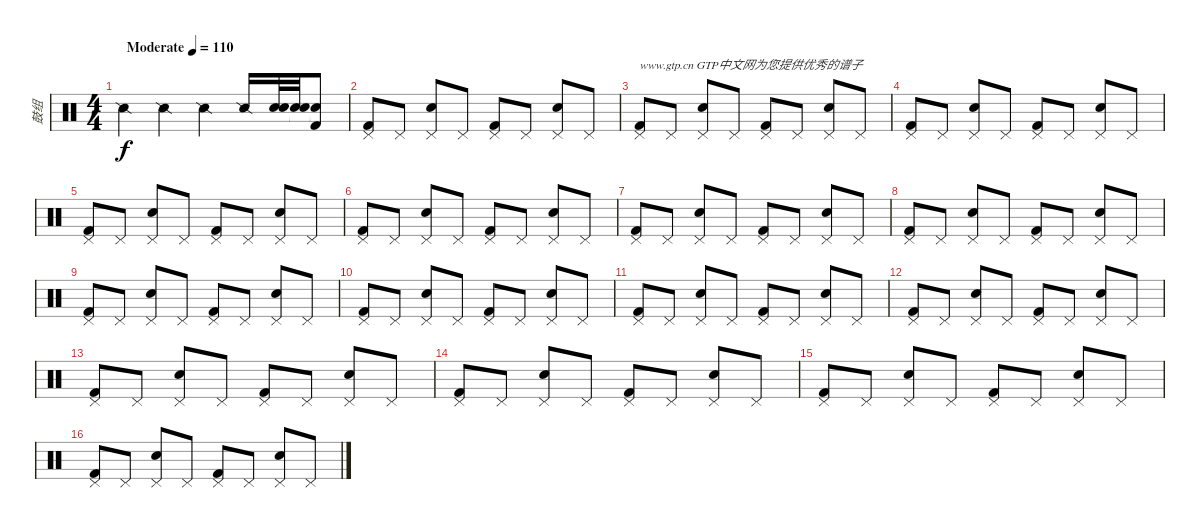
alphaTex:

\track ("鼓组" "鼓组") {instrument percussion}
\staff {score}
\articulation defaults
\ts (4 4)
\tempo (110 "Moderate")
\clef neutral
\ks c "Snare (side stick) 2".4{dy f} "Snare (side stick) 2".4 "Snare (side stick) 2".4 "Snare (side stick) 2".16
("Snare (hit) 2" "Snare (hit)").32 ("Electric Snare (hit)" "Snare (hit)"{t}).32 ("Kick (hit) 2" "Snare (hit)"{t}).8 |
("Kick (hit) 2" "Pedal Hi-Hat (hit)").8 "Pedal Hi-Hat (hit)".8 ("Electric Snare (hit)" "Pedal Hi-Hat (hit)").8 "Pedal Hi-Hat (hit)".8 ("Kick (hit) 2" "Pedal Hi-Hat (hit)").8 "Pedal Hi-Hat (hit)".8 ("Electric Snare (hit)" "Pedal Hi-Hat (hit)").8 "Pedal Hi-Hat (hit)".8 |
("Kick (hit) 2" "Pedal Hi-Hat (hit)").8{txt "www.gtp.cn GTP中文网为您提供优秀的谱子"} "Pedal Hi-Hat (hit)".8 ("Electric Snare (hit)" "Pedal Hi-Hat (hit)").8 "Pedal Hi-Hat (hit)".8 ("Kick (hit) 2" "Pedal Hi-Hat (hit)").8 "Pedal Hi-Hat (hit)".8 ("Electric Snare (hit)" "Pedal Hi-Hat (hit)").8 "Pedal Hi-Hat (hit)".8 |
("Kick (hit) 2" "Pedal Hi-Hat (hit)").8 "Pedal Hi-Hat (hit)".8 ("Electric Snare (hit)" "Pedal Hi-Hat (hit)").8 "Pedal Hi-Hat (hit)".8 ("Kick (hit) 2" "Pedal Hi-Hat (hit)").8 "Pedal Hi-Hat (hit)".8 ("Electric Snare (hit)" "Pedal Hi-Hat (hit)").8 "Pedal Hi-Hat (hit)".8 |
("Kick (hit) 2" "Pedal Hi-Hat (hit)").8 "Pedal Hi-Hat (hit)".8 ("Electric Snare (hit)" "Pedal Hi-Hat (hit)").8 "Pedal Hi-Hat (hit)".8 ("Kick (hit) 2" "Pedal Hi-Hat (hit)").8 "Pedal Hi-Hat (hit)".8 ("Electric Snare (hit)" "Pedal Hi-Hat (hit)").8 "Pedal Hi-Hat (hit)".8 |
("Kick (hit) 2" "Pedal Hi-Hat (hit)").8 "Pedal Hi-Hat (hit)".8 ("Electric Snare (hit)" "Pedal Hi-Hat (hit)").8 "Pedal Hi-Hat (hit)".8 ("Kick (hit) 2" "Pedal Hi-Hat (hit)").8 "Pedal Hi-Hat (hit)".8 ("Electric Snare (hit)" "Pedal Hi-Hat (hit)").8 "Pedal Hi-Hat (hit)".8 |
("Kick (hit) 2" "Pedal Hi-Hat (hit)").8 "Pedal Hi-Hat (hit)".8 ("Electric Snare (hit)" "Pedal Hi-Hat (hit)").8 "Pedal Hi-Hat (hit)".8 ("Kick (hit) 2" "Pedal Hi-Hat (hit)").8 "Pedal Hi-Hat (hit)".8 ("Electric Snare (hit)" "Pedal Hi-Hat (hit)").8 "Pedal Hi-Hat (hit)".8 |
("Kick (hit) 2" "Pedal Hi-Hat (hit)").8 "Pedal Hi-Hat (hit)".8 ("Electric Snare (hit)" "Pedal Hi-Hat (hit)").8 "Pedal Hi-Hat (hit)".8 ("Kick (hit) 2" "Pedal Hi-Hat (hit)").8 "Pedal Hi-Hat (hit)".8 ("Electric Snare (hit)" "Pedal Hi-Hat (hit)").8 "Pedal Hi-Hat (hit)".8 |
("Kick (hit) 2" "Pedal Hi-Hat (hit)").8 "Pedal Hi-Hat (hit)".8 ("Electric Snare (hit)" "Pedal Hi-Hat (hit)").8 "Pedal Hi-Hat (hit)".8 ("Kick (hit) 2" "Pedal Hi-Hat (hit)").8 "Pedal Hi-Hat (hit)".8 ("Electric Snare (hit)" "Pedal Hi-Hat (hit)").8 "Pedal Hi-Hat (hit)".8 |
("Kick (hit) 2" "Pedal Hi-Hat (hit)").8 "Pedal Hi-Hat (hit)".8 ("Electric Snare (hit)" "Pedal Hi-Hat (hit)").8 "Pedal Hi-Hat (hit)".8 ("Kick (hit) 2" "Pedal Hi-Hat (hit)").8 "Pedal Hi-Hat (hit)".8 ("Electric Snare (hit)" "Pedal Hi-Hat (hit)").8 "Pedal Hi-Hat (hit)".8 |
("Kick (hit) 2" "Pedal Hi-Hat (hit)").8 "Pedal Hi-Hat (hit)".8 ("Electric Snare (hit)" "Pedal Hi-Hat (hit)").8 "Pedal Hi-Hat (hit)".8 ("Kick (hit) 2" "Pedal Hi-Hat (hit)").8 "Pedal Hi-Hat (hit)".8 ("Electric Snare (hit)" "Pedal Hi-Hat (hit)").8 "Pedal Hi-Hat (hit)".8 |
("Kick (hit) 2" "Pedal Hi-Hat (hit)").8 "Pedal Hi-Hat (hit)".8 ("Electric Snare (hit)" "Pedal Hi-Hat (hit)").8 "Pedal Hi-Hat (hit)".8 ("Kick (hit) 2" "Pedal Hi-Hat (hit)").8 "Pedal Hi-Hat (hit)".8 ("Electric Snare (hit)" "Pedal Hi-Hat (hit)").8 "Pedal Hi-Hat (hit)".8 |
("Kick (hit) 2" "Pedal Hi-Hat (hit)").8 "Pedal Hi-Hat (hit)".8 ("Electric Snare (hit)" "Pedal Hi-Hat (hit)").8 "Pedal Hi-Hat (hit)".8 ("Kick (hit) 2" "Pedal Hi-Hat (hit)").8 "Pedal Hi-Hat (hit)".8 ("Electric Snare (hit)" "Pedal Hi-Hat (hit)").8 "Pedal Hi-Hat (hit)".8 |
("Kick (hit) 2" "Pedal Hi-Hat (hit)").8 "Pedal Hi-Hat (hit)".8 ("Electric Snare (hit)" "Pedal Hi-Hat (hit)").8 "Pedal Hi-Hat (hit)".8 ("Kick (hit) 2" "Pedal Hi-Hat (hit)").8 "Pedal Hi-Hat (hit)".8 ("Electric Snare (hit)" "Pedal Hi-Hat (hit)").8 "Pedal Hi-Hat (hit)".8 |
("Kick (hit) 2" "Pedal Hi-Hat (hit)").8 "Pedal Hi-Hat (hit)".8 ("Electric Snare (hit)" "Pedal Hi-Hat (hit)").8 "Pedal Hi-Hat (hit)".8 ("Kick (hit) 2" "Pedal Hi-Hat (hit)").8 "Pedal Hi-Hat (hit)".8 ("Electric Snare (hit)" "Pedal Hi-Hat (hit)").8 "Pedal Hi-Hat (hit)".8 |
("Kick (hit) 2" "Pedal Hi-Hat (hit)").8 "Pedal Hi-Hat (hit)".8 ("Electric Snare (hit)" "Pedal Hi-Hat (hit)").8 "Pedal Hi-Hat (hit)".8 ("Kick (hit) 2" "Pedal Hi-Hat (hit)").8 "Pedal Hi-Hat (hit)".8 ("Electric Snare (hit)" "Pedal Hi-Hat (hit)").8 "Pedal Hi-Hat (hit)".8
